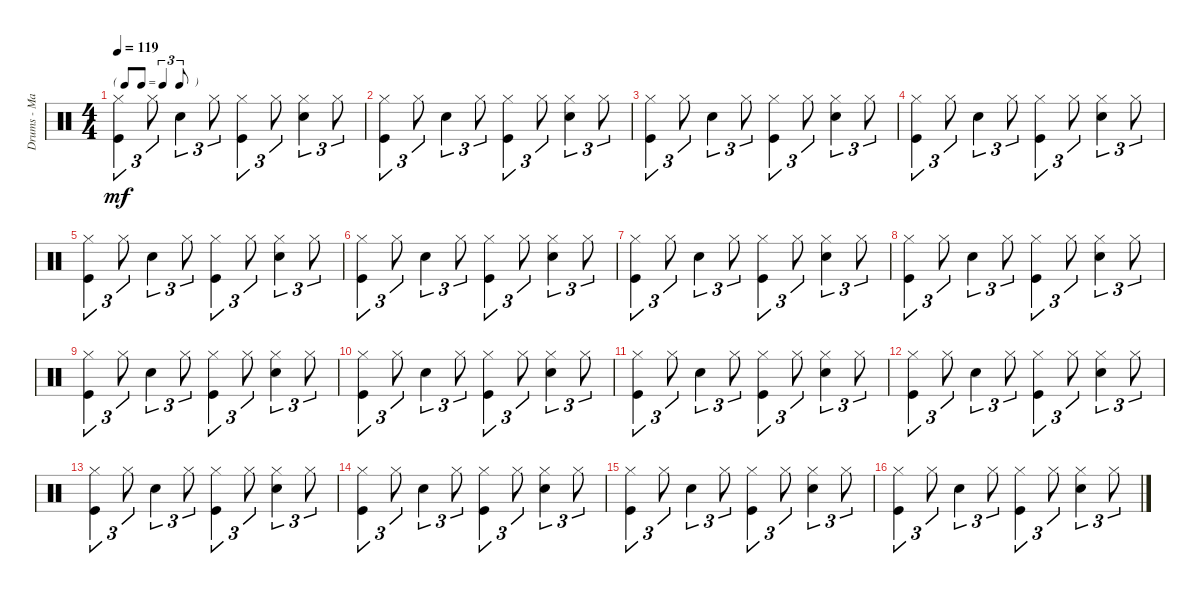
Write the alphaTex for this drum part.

\track ("Drums - Mason" "Drums - Ma") {instrument percussion}
\staff {score}
\articulation defaults
\ts (4 4)
\tf triplet8th
\tempo 119
\clef neutral
\ks c
("Hi-Hat (closed)" "Kick (hit)").4{tu (3 2) dy mf} "Hi-Hat (closed)".8{tu (3 2)} "Snare (hit) 2".4{tu (3 2)} "Hi-Hat (closed)".8{tu (3 2)} ("Hi-Hat (closed)" "Kick (hit)").4{tu (3 2)} "Hi-Hat (closed)".8{tu (3 2)} ("Hi-Hat (closed)" "Snare (hit) 2").4{tu (3 2)} "Hi-Hat (closed)".8{tu (3 2)} |
("Hi-Hat (closed)" "Kick (hit)").4{tu (3 2)} "Hi-Hat (closed)".8{tu (3 2)} "Snare (hit) 2".4{tu (3 2)} "Hi-Hat (closed)".8{tu (3 2)} ("Hi-Hat (closed)" "Kick (hit)").4{tu (3 2)} "Hi-Hat (closed)".8{tu (3 2)} ("Hi-Hat (closed)" "Snare (hit) 2").4{tu (3 2)} "Hi-Hat (closed)".8{tu (3 2)} |
("Hi-Hat (closed)" "Kick (hit)").4{tu (3 2)} "Hi-Hat (closed)".8{tu (3 2)} "Snare (hit) 2".4{tu (3 2)} "Hi-Hat (closed)".8{tu (3 2)} ("Hi-Hat (closed)" "Kick (hit)").4{tu (3 2)} "Hi-Hat (closed)".8{tu (3 2)} ("Hi-Hat (closed)" "Snare (hit) 2").4{tu (3 2)} "Hi-Hat (closed)".8{tu (3 2)} |
("Hi-Hat (closed)" "Kick (hit)").4{tu (3 2)} "Hi-Hat (closed)".8{tu (3 2)} "Snare (hit) 2".4{tu (3 2)} "Hi-Hat (closed)".8{tu (3 2)} ("Hi-Hat (closed)" "Kick (hit)").4{tu (3 2)} "Hi-Hat (closed)".8{tu (3 2)} ("Hi-Hat (closed)" "Snare (hit) 2").4{tu (3 2)} "Hi-Hat (closed)".8{tu (3 2)} |
("Hi-Hat (closed)" "Kick (hit)").4{tu (3 2)} "Hi-Hat (closed)".8{tu (3 2)} "Snare (hit) 2".4{tu (3 2)} "Hi-Hat (closed)".8{tu (3 2)} ("Hi-Hat (closed)" "Kick (hit)").4{tu (3 2)} "Hi-Hat (closed)".8{tu (3 2)} ("Hi-Hat (closed)" "Snare (hit) 2").4{tu (3 2)} "Hi-Hat (closed)".8{tu (3 2)} |
("Hi-Hat (closed)" "Kick (hit)").4{tu (3 2)} "Hi-Hat (closed)".8{tu (3 2)} "Snare (hit) 2".4{tu (3 2)} "Hi-Hat (closed)".8{tu (3 2)} ("Hi-Hat (closed)" "Kick (hit)").4{tu (3 2)} "Hi-Hat (closed)".8{tu (3 2)} ("Hi-Hat (closed)" "Snare (hit) 2").4{tu (3 2)} "Hi-Hat (closed)".8{tu (3 2)} |
("Hi-Hat (closed)" "Kick (hit)").4{tu (3 2)} "Hi-Hat (closed)".8{tu (3 2)} "Snare (hit) 2".4{tu (3 2)} "Hi-Hat (closed)".8{tu (3 2)} ("Hi-Hat (closed)" "Kick (hit)").4{tu (3 2)} "Hi-Hat (closed)".8{tu (3 2)} ("Hi-Hat (closed)" "Snare (hit) 2").4{tu (3 2)} "Hi-Hat (closed)".8{tu (3 2)} |
("Hi-Hat (closed)" "Kick (hit)").4{tu (3 2)} "Hi-Hat (closed)".8{tu (3 2)} "Snare (hit) 2".4{tu (3 2)} "Hi-Hat (closed)".8{tu (3 2)} ("Hi-Hat (closed)" "Kick (hit)").4{tu (3 2)} "Hi-Hat (closed)".8{tu (3 2)} ("Hi-Hat (closed)" "Snare (hit) 2").4{tu (3 2)} "Hi-Hat (closed)".8{tu (3 2)} |
("Hi-Hat (closed)" "Kick (hit)").4{tu (3 2)} "Hi-Hat (closed)".8{tu (3 2)} "Snare (hit) 2".4{tu (3 2)} "Hi-Hat (closed)".8{tu (3 2)} ("Hi-Hat (closed)" "Kick (hit)").4{tu (3 2)} "Hi-Hat (closed)".8{tu (3 2)} ("Hi-Hat (closed)" "Snare (hit) 2").4{tu (3 2)} "Hi-Hat (closed)".8{tu (3 2)} |
("Hi-Hat (closed)" "Kick (hit)").4{tu (3 2)} "Hi-Hat (closed)".8{tu (3 2)} "Snare (hit) 2".4{tu (3 2)} "Hi-Hat (closed)".8{tu (3 2)} ("Hi-Hat (closed)" "Kick (hit)").4{tu (3 2)} "Hi-Hat (closed)".8{tu (3 2)} ("Hi-Hat (closed)" "Snare (hit) 2").4{tu (3 2)} "Hi-Hat (closed)".8{tu (3 2)} |
("Hi-Hat (closed)" "Kick (hit)").4{tu (3 2)} "Hi-Hat (closed)".8{tu (3 2)} "Snare (hit) 2".4{tu (3 2)} "Hi-Hat (closed)".8{tu (3 2)} ("Hi-Hat (closed)" "Kick (hit)").4{tu (3 2)} "Hi-Hat (closed)".8{tu (3 2)} ("Hi-Hat (closed)" "Snare (hit) 2").4{tu (3 2)} "Hi-Hat (closed)".8{tu (3 2)} |
("Hi-Hat (closed)" "Kick (hit)").4{tu (3 2)} "Hi-Hat (closed)".8{tu (3 2)} "Snare (hit) 2".4{tu (3 2)} "Hi-Hat (closed)".8{tu (3 2)} ("Hi-Hat (closed)" "Kick (hit)").4{tu (3 2)} "Hi-Hat (closed)".8{tu (3 2)} ("Hi-Hat (closed)" "Snare (hit) 2").4{tu (3 2)} "Hi-Hat (closed)".8{tu (3 2)} |
("Hi-Hat (closed)" "Kick (hit)").4{tu (3 2)} "Hi-Hat (closed)".8{tu (3 2)} "Snare (hit) 2".4{tu (3 2)} "Hi-Hat (closed)".8{tu (3 2)} ("Hi-Hat (closed)" "Kick (hit)").4{tu (3 2)} "Hi-Hat (closed)".8{tu (3 2)} ("Hi-Hat (closed)" "Snare (hit) 2").4{tu (3 2)} "Hi-Hat (closed)".8{tu (3 2)} |
("Hi-Hat (closed)" "Kick (hit)").4{tu (3 2)} "Hi-Hat (closed)".8{tu (3 2)} "Snare (hit) 2".4{tu (3 2)} "Hi-Hat (closed)".8{tu (3 2)} ("Hi-Hat (closed)" "Kick (hit)").4{tu (3 2)} "Hi-Hat (closed)".8{tu (3 2)} ("Hi-Hat (closed)" "Snare (hit) 2").4{tu (3 2)} "Hi-Hat (closed)".8{tu (3 2)} |
("Hi-Hat (closed)" "Kick (hit)").4{tu (3 2)} "Hi-Hat (closed)".8{tu (3 2)} "Snare (hit) 2".4{tu (3 2)} "Hi-Hat (closed)".8{tu (3 2)} ("Hi-Hat (closed)" "Kick (hit)").4{tu (3 2)} "Hi-Hat (closed)".8{tu (3 2)} ("Hi-Hat (closed)" "Snare (hit) 2").4{tu (3 2)} "Hi-Hat (closed)".8{tu (3 2)} |
("Hi-Hat (closed)" "Kick (hit)").4{tu (3 2)} "Hi-Hat (closed)".8{tu (3 2)} "Snare (hit) 2".4{tu (3 2)} "Hi-Hat (closed)".8{tu (3 2)} ("Hi-Hat (closed)" "Kick (hit)").4{tu (3 2)} "Hi-Hat (closed)".8{tu (3 2)} ("Hi-Hat (closed)" "Snare (hit) 2").4{tu (3 2)} "Hi-Hat (closed)".8{tu (3 2)}
